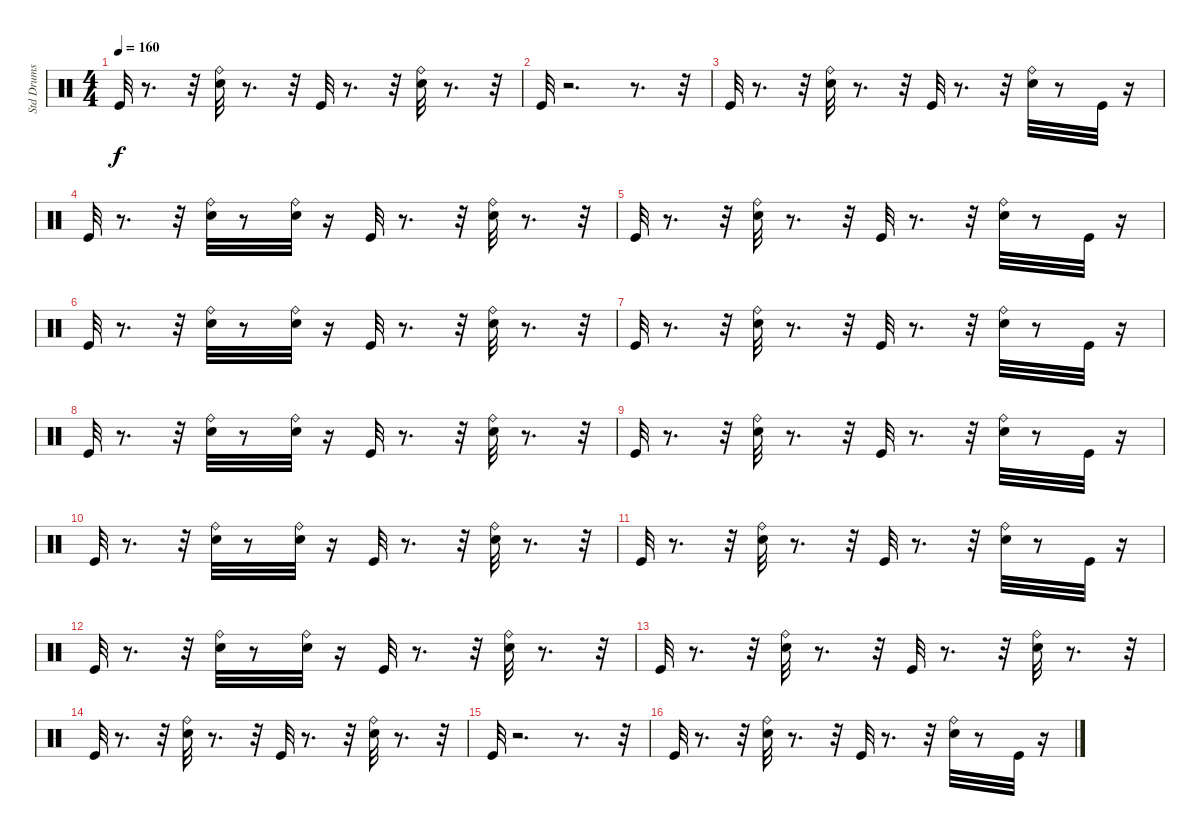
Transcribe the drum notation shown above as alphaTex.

\track ("Std Drums" "Std Drums") {instrument percussion}
\staff {score}
\articulation defaults
\ts (4 4)
\tempo 160
\clef neutral
\ks c "Kick (hit)".32{dy f}
r.8{d} r.32 ("Ride (bell)" "Snare (hit) 2").32 r.8{d} r.32 "Kick (hit)".32 r.8{d} r.32 ("Snare (hit) 2" "Ride (bell)").32 r.8{d} r.32 |
"Kick (hit)".32 r.2{d} r.8{d} r.32 |
"Kick (hit)".32 r.8{d} r.32 ("Ride (bell)" "Snare (hit) 2").32 r.8{d} r.32 "Kick (hit)".32 r.8{d} r.32 ("Snare (hit) 2" "Ride (bell)").32 r.8 "Kick (hit)".32 r.16 |
"Kick (hit)".32 r.8{d} r.32 ("Snare (hit) 2" "Ride (bell)").32 r.8 ("Ride (bell)" "Snare (hit) 2").32 r.16 "Kick (hit)".32 r.8{d} r.32 ("Ride (bell)" "Snare (hit) 2").32 r.8{d} r.32 |
"Kick (hit)".32 r.8{d} r.32 ("Snare (hit) 2" "Ride (bell)").32 r.8{d} r.32 "Kick (hit)".32 r.8{d} r.32 ("Ride (bell)" "Snare (hit) 2").32 r.8 "Kick (hit)".32 r.16 |
"Kick (hit)".32 r.8{d} r.32 ("Ride (bell)" "Snare (hit) 2").32 r.8 ("Snare (hit) 2" "Ride (bell)").32 r.16 "Kick (hit)".32 r.8{d} r.32 ("Ride (bell)" "Snare (hit) 2").32 r.8{d} r.32 |
"Kick (hit)".32 r.8{d} r.32 ("Ride (bell)" "Snare (hit) 2").32 r.8{d} r.32 "Kick (hit)".32 r.8{d} r.32 ("Snare (hit) 2" "Ride (bell)").32 r.8 "Kick (hit)".32 r.16 |
"Kick (hit)".32 r.8{d} r.32 ("Ride (bell)" "Snare (hit) 2").32 r.8 ("Ride (bell)" "Snare (hit) 2").32 r.16 "Kick (hit)".32 r.8{d} r.32 ("Snare (hit) 2" "Ride (bell)").32 r.8{d} r.32 |
"Kick (hit)".32 r.8{d} r.32 ("Snare (hit) 2" "Ride (bell)").32 r.8{d} r.32 "Kick (hit)".32 r.8{d} r.32 ("Ride (bell)" "Snare (hit) 2").32 r.8 "Kick (hit)".32 r.16 |
"Kick (hit)".32 r.8{d} r.32 ("Snare (hit) 2" "Ride (bell)").32 r.8 ("Snare (hit) 2" "Ride (bell)").32 r.16 "Kick (hit)".32 r.8{d} r.32 ("Ride (bell)" "Snare (hit) 2").32 r.8{d} r.32 |
"Kick (hit)".32 r.8{d} r.32 ("Snare (hit) 2" "Ride (bell)").32 r.8{d} r.32 "Kick (hit)".32 r.8{d} r.32 ("Snare (hit) 2" "Ride (bell)").32 r.8 "Kick (hit)".32 r.16 |
"Kick (hit)".32 r.8{d} r.32 ("Snare (hit) 2" "Ride (bell)").32 r.8 ("Ride (bell)" "Snare (hit) 2").32 r.16 "Kick (hit)".32 r.8{d} r.32 ("Snare (hit) 2" "Ride (bell)").32 r.8{d} r.32 |
"Kick (hit)".32 r.8{d} r.32 ("Snare (hit) 2" "Ride (bell)").32 r.8{d} r.32 "Kick (hit)".32 r.8{d} r.32 ("Ride (bell)" "Snare (hit) 2").32 r.8{d} r.32 |
"Kick (hit)".32 r.8{d} r.32 ("Snare (hit) 2" "Ride (bell)").32 r.8{d} r.32 "Kick (hit)".32 r.8{d} r.32 ("Ride (bell)" "Snare (hit) 2").32 r.8{d} r.32 |
"Kick (hit)".32 r.2{d} r.8{d} r.32 |
"Kick (hit)".32 r.8{d} r.32 ("Ride (bell)" "Snare (hit) 2").32 r.8{d} r.32 "Kick (hit)".32 r.8{d} r.32 ("Ride (bell)" "Snare (hit) 2").32 r.8 "Kick (hit)".32 r.16
